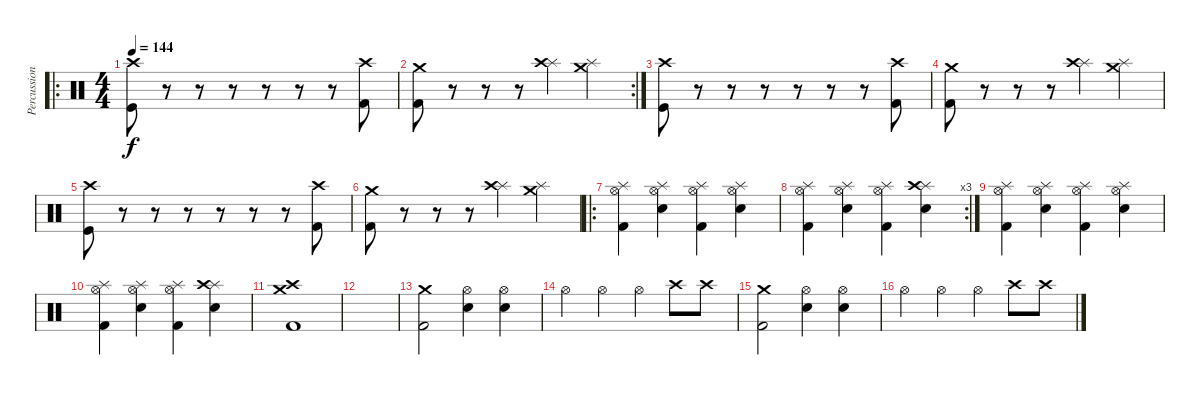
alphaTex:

\track ("Percussion" "Percussion") {instrument percussion}
\staff {score}
\articulation defaults
\ro
\ts (4 4)
\tempo 144
\clef neutral
\ks c
("Kick (hit)" "Crash high (hit)").8{dy f} r.8 r.8 r.8 r.8 r.8 r.8 ("Crash high (hit)" "Kick (hit) 2").8 |
\rc 2
("Kick (hit) 2" "Crash medium (hit)").8 r.8 r.8 r.8 ("Splash (hit)" "Crash high (hit)").4 ("Splash (hit)" "Crash medium (hit)").4 |
("Kick (hit)" "Crash high (hit)").8 r.8 r.8 r.8 r.8 r.8 r.8 ("Crash high (hit)" "Kick (hit) 2").8 |
("Kick (hit) 2" "Crash medium (hit)").8 r.8 r.8 r.8 ("Splash (hit)" "Crash high (hit)").4 ("Splash (hit)" "Crash medium (hit)").4 |
("Kick (hit)" "Crash high (hit)").8 r.8 r.8 r.8 r.8 r.8 r.8 ("Crash high (hit)" "Kick (hit) 2").8 |
("Kick (hit) 2" "Crash medium (hit)").8 r.8 r.8 r.8 ("Splash (hit)" "Crash high (hit)").4 ("Splash (hit)" "Crash medium (hit)").4 |
\ro
("Kick (hit) 2" "Hi-Hat (open)" "Splash (hit)").4 ("Snare (hit) 2" "Splash (hit)" "Hi-Hat (open)").4 ("Kick (hit) 2" "Hi-Hat (open)" "Splash (hit)").4 ("Snare (hit) 2" "Splash (hit)" "Hi-Hat (open)").4 |
\rc 3
("Kick (hit) 2" "Hi-Hat (open)" "Splash (hit)").4 ("Snare (hit) 2" "Splash (hit)" "Hi-Hat (open)").4 ("Kick (hit) 2" "Hi-Hat (open)" "Splash (hit)").4 ("Snare (hit) 2" "Splash (hit)" "Crash high (hit)").4 |
("Kick (hit) 2" "Hi-Hat (open)" "Splash (hit)").4 ("Snare (hit) 2" "Splash (hit)" "Hi-Hat (open)").4 ("Kick (hit) 2" "Hi-Hat (open)" "Splash (hit)").4 ("Snare (hit) 2" "Splash (hit)" "Hi-Hat (open)").4 |
("Kick (hit) 2" "Hi-Hat (open)" "Splash (hit)").4 ("Snare (hit) 2" "Splash (hit)" "Hi-Hat (open)").4 ("Kick (hit) 2" "Hi-Hat (open)" "Splash (hit)").4 ("Snare (hit) 2" "Splash (hit)" "Crash high (hit)").4 |
("Crash medium (hit)" "Kick (hit) 2" "Crash high (hit)").1 |
|
("Crash medium (hit)" "Kick (hit) 2").2 ("Hi-Hat (open)" "Snare (hit)").4 ("Hi-Hat (open)" "Snare (hit)").4 |
"Hi-Hat (open)".4 "Hi-Hat (open)".4 "Hi-Hat (open)".4 "Crash high (hit)".8 "Crash high (hit)".8 |
("Crash medium (hit)" "Kick (hit) 2").2 ("Hi-Hat (open)" "Snare (hit)").4 ("Hi-Hat (open)" "Snare (hit)").4 |
"Hi-Hat (open)".4 "Hi-Hat (open)".4 "Hi-Hat (open)".4 "Crash high (hit)".8 "Crash high (hit)".8
